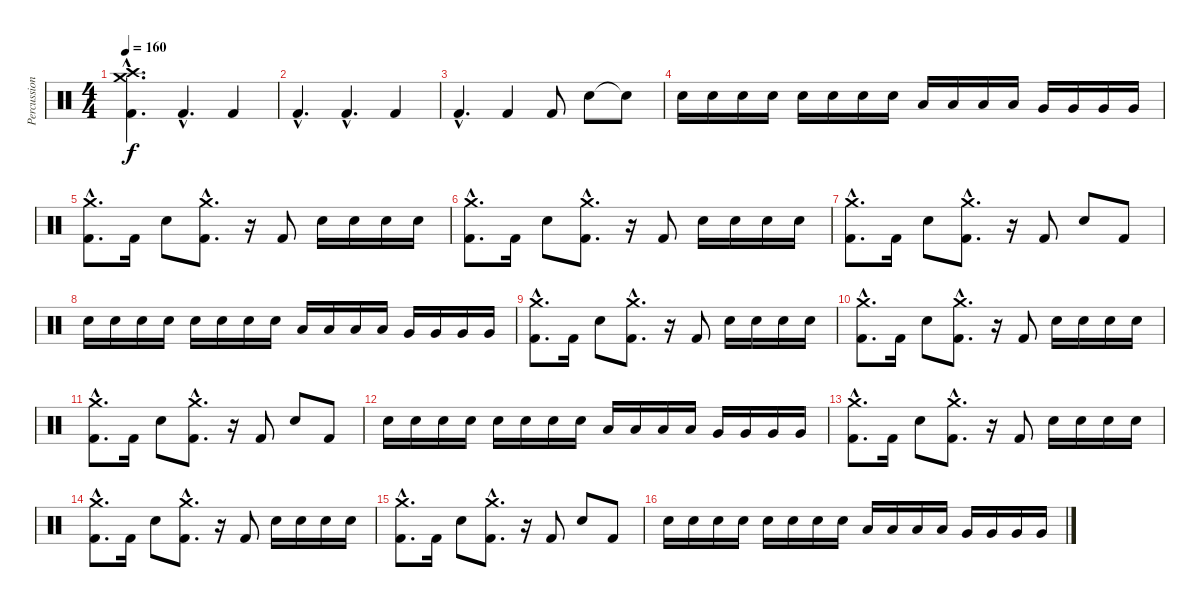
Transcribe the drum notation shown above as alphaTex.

\track ("Percussion" "Percussion") {instrument percussion}
\staff {score}
\articulation defaults
\ts (4 4)
\tempo 160
\clef neutral
\ks c
("Kick (hit) 2"{hac} "Crash high (hit)"{hac} "Crash medium (hit)"{hac}).4{d dy f} "Kick (hit) 2"{hac}.4{d} "Kick (hit) 2".4 |
"Kick (hit) 2"{hac}.4{d} "Kick (hit) 2"{hac}.4{d} "Kick (hit) 2".4 |
"Kick (hit) 2"{hac}.4{d} "Kick (hit) 2".4 "Kick (hit) 2".8 "Electric Snare (hit)".8 "Snare (hit)"{t}.8 |
"Electric Snare (hit)".16 "Electric Snare (hit)".16 "Electric Snare (hit)".16 "Electric Snare (hit)".16 "Electric Snare (hit)".16 "Electric Snare (hit)".16 "Electric Snare (hit)".16 "Electric Snare (hit)".16 "Low Tom (hit)".16 "Low Tom (hit)".16 "Low Tom (hit)".16 "Low Tom (hit)".16 "Very Low Tom (hit)".16 "Very Low Tom (hit)".16 "Very Low Tom (hit)".16 "Very Low Tom (hit)".16 |
("Kick (hit) 2"{hac} "Crash medium (hit)"{hac}).8{d} "Kick (hit) 2".16 "Electric Snare (hit)".8 ("Kick (hit) 2"{hac} "Crash medium (hit)"{hac}).8{d} r.16 "Kick (hit) 2".8 "Electric Snare (hit)".16 "Electric Snare (hit)".16 "Electric Snare (hit)".16 "Electric Snare (hit)".16 |
("Kick (hit) 2"{hac} "Crash medium (hit)"{hac}).8{d} "Kick (hit) 2".16 "Electric Snare (hit)".8 ("Kick (hit) 2"{hac} "Crash medium (hit)"{hac}).8{d} r.16 "Kick (hit) 2".8 "Electric Snare (hit)".16 "Electric Snare (hit)".16 "Electric Snare (hit)".16 "Electric Snare (hit)".16 |
("Kick (hit) 2"{hac} "Crash medium (hit)"{hac}).8{d} "Kick (hit) 2".16 "Electric Snare (hit)".8 ("Kick (hit) 2"{hac} "Crash medium (hit)"{hac}).8{d} r.16 "Kick (hit) 2".8 "Electric Snare (hit)".8 "Kick (hit) 2".8 |
"Electric Snare (hit)".16 "Electric Snare (hit)".16 "Electric Snare (hit)".16 "Electric Snare (hit)".16 "Electric Snare (hit)".16 "Electric Snare (hit)".16 "Electric Snare (hit)".16 "Electric Snare (hit)".16 "Low Tom (hit)".16 "Low Tom (hit)".16 "Low Tom (hit)".16 "Low Tom (hit)".16 "Very Low Tom (hit)".16 "Very Low Tom (hit)".16 "Very Low Tom (hit)".16 "Very Low Tom (hit)".16 |
("Kick (hit) 2"{hac} "Crash medium (hit)"{hac}).8{d} "Kick (hit) 2".16 "Electric Snare (hit)".8 ("Kick (hit) 2"{hac} "Crash medium (hit)"{hac}).8{d} r.16 "Kick (hit) 2".8 "Electric Snare (hit)".16 "Electric Snare (hit)".16 "Electric Snare (hit)".16 "Electric Snare (hit)".16 |
("Kick (hit) 2"{hac} "Crash medium (hit)"{hac}).8{d} "Kick (hit) 2".16 "Electric Snare (hit)".8 ("Kick (hit) 2"{hac} "Crash medium (hit)"{hac}).8{d} r.16 "Kick (hit) 2".8 "Electric Snare (hit)".16 "Electric Snare (hit)".16 "Electric Snare (hit)".16 "Electric Snare (hit)".16 |
("Kick (hit) 2"{hac} "Crash medium (hit)"{hac}).8{d} "Kick (hit) 2".16 "Electric Snare (hit)".8 ("Kick (hit) 2"{hac} "Crash medium (hit)"{hac}).8{d} r.16 "Kick (hit) 2".8 "Electric Snare (hit)".8 "Kick (hit) 2".8 |
"Electric Snare (hit)".16 "Electric Snare (hit)".16 "Electric Snare (hit)".16 "Electric Snare (hit)".16 "Electric Snare (hit)".16 "Electric Snare (hit)".16 "Electric Snare (hit)".16 "Electric Snare (hit)".16 "Low Tom (hit)".16 "Low Tom (hit)".16 "Low Tom (hit)".16 "Low Tom (hit)".16 "Very Low Tom (hit)".16 "Very Low Tom (hit)".16 "Very Low Tom (hit)".16 "Very Low Tom (hit)".16 |
("Kick (hit) 2"{hac} "Crash medium (hit)"{hac}).8{d} "Kick (hit) 2".16 "Electric Snare (hit)".8 ("Kick (hit) 2"{hac} "Crash medium (hit)"{hac}).8{d} r.16 "Kick (hit) 2".8 "Electric Snare (hit)".16 "Electric Snare (hit)".16 "Electric Snare (hit)".16 "Electric Snare (hit)".16 |
("Kick (hit) 2"{hac} "Crash medium (hit)"{hac}).8{d} "Kick (hit) 2".16 "Electric Snare (hit)".8 ("Kick (hit) 2"{hac} "Crash medium (hit)"{hac}).8{d} r.16 "Kick (hit) 2".8 "Electric Snare (hit)".16 "Electric Snare (hit)".16 "Electric Snare (hit)".16 "Electric Snare (hit)".16 |
("Kick (hit) 2"{hac} "Crash medium (hit)"{hac}).8{d} "Kick (hit) 2".16 "Electric Snare (hit)".8 ("Kick (hit) 2"{hac} "Crash medium (hit)"{hac}).8{d} r.16 "Kick (hit) 2".8 "Electric Snare (hit)".8 "Kick (hit) 2".8 |
"Electric Snare (hit)".16 "Electric Snare (hit)".16 "Electric Snare (hit)".16 "Electric Snare (hit)".16 "Electric Snare (hit)".16 "Electric Snare (hit)".16 "Electric Snare (hit)".16 "Electric Snare (hit)".16 "Low Tom (hit)".16 "Low Tom (hit)".16 "Low Tom (hit)".16 "Low Tom (hit)".16 "Very Low Tom (hit)".16 "Very Low Tom (hit)".16 "Very Low Tom (hit)".16 "Very Low Tom (hit)".16
